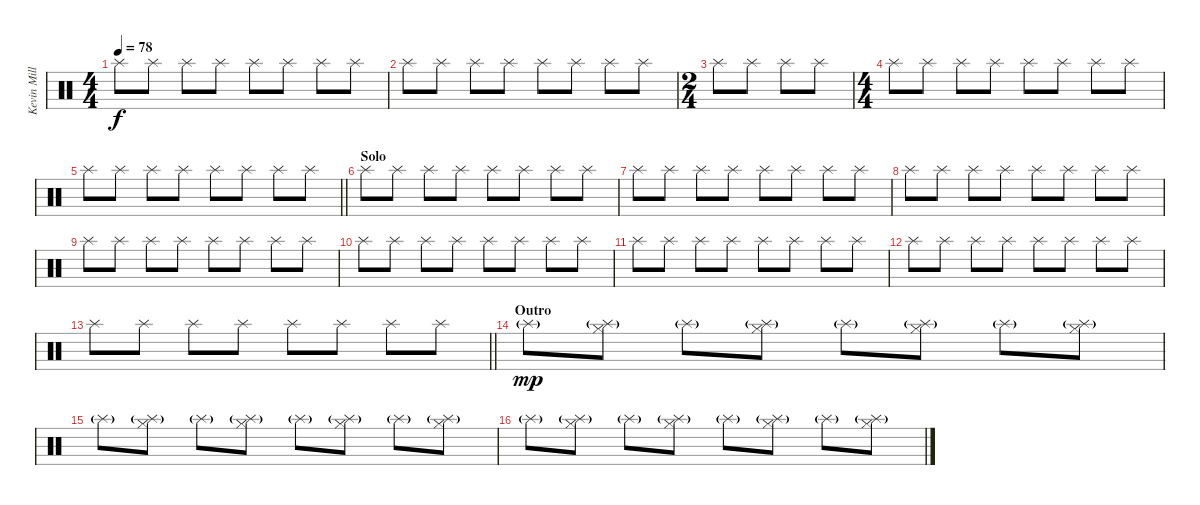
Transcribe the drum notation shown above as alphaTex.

\track ("Kevin Miller (Drums)" "Kevin Mill") {instrument percussion}
\staff {score}
\articulation defaults
\ts (4 4)
\tempo 78
\clef neutral
\ks c "Splash (hit)".8{dy f} "Splash (hit)".8 "Splash (hit)".8 "Splash (hit)".8 "Splash (hit)".8 "Splash (hit)".8 "Splash (hit)".8 "Splash (hit)".8
|
"Splash (hit)".8 "Splash (hit)".8 "Splash (hit)".8 "Splash (hit)".8 "Splash (hit)".8 "Splash (hit)".8 "Splash (hit)".8 "Splash (hit)".8 |
\ts (2 4)
"Splash (hit)".8 "Splash (hit)".8 "Splash (hit)".8 "Splash (hit)".8 |
\ts (4 4)
"Splash (hit)".8 "Splash (hit)".8 "Splash (hit)".8 "Splash (hit)".8 "Splash (hit)".8 "Splash (hit)".8 "Splash (hit)".8 "Splash (hit)".8 |
\barLineRight lightlight "Splash (hit)".8 "Splash (hit)".8 "Splash (hit)".8 "Splash (hit)".8 "Splash (hit)".8 "Splash (hit)".8 "Splash (hit)".8 "Splash (hit)".8
|
\section ("" "Solo")
"Splash (hit)".8 "Splash (hit)".8 "Splash (hit)".8 "Splash (hit)".8 "Splash (hit)".8 "Splash (hit)".8 "Splash (hit)".8 "Splash (hit)".8 |
"Splash (hit)".8 "Splash (hit)".8 "Splash (hit)".8 "Splash (hit)".8 "Splash (hit)".8 "Splash (hit)".8 "Splash (hit)".8 "Splash (hit)".8 |
"Splash (hit)".8 "Splash (hit)".8 "Splash (hit)".8 "Splash (hit)".8 "Splash (hit)".8 "Splash (hit)".8 "Splash (hit)".8 "Splash (hit)".8 |
"Splash (hit)".8 "Splash (hit)".8 "Splash (hit)".8 "Splash (hit)".8 "Splash (hit)".8 "Splash (hit)".8 "Splash (hit)".8 "Splash (hit)".8 |
"Splash (hit)".8 "Splash (hit)".8 "Splash (hit)".8 "Splash (hit)".8 "Splash (hit)".8 "Splash (hit)".8 "Splash (hit)".8 "Splash (hit)".8 |
"Splash (hit)".8 "Splash (hit)".8 "Splash (hit)".8 "Splash (hit)".8 "Splash (hit)".8 "Splash (hit)".8 "Splash (hit)".8 "Splash (hit)".8 |
"Splash (hit)".8 "Splash (hit)".8 "Splash (hit)".8 "Splash (hit)".8 "Splash (hit)".8 "Splash (hit)".8 "Splash (hit)".8 "Splash (hit)".8 |
\barLineRight lightlight "Splash (hit)".8 "Splash (hit)".8 "Splash (hit)".8 "Splash (hit)".8 "Splash (hit)".8 "Splash (hit)".8 "Splash (hit)".8 "Splash (hit)".8
|
\section ("" "Outro")
"Splash (hit)"{g}.8{dy mp} ("Hi-Hat (closed)" "Splash (hit)"{g}).8 "Splash (hit)"{g}.8 ("Hi-Hat (closed)" "Splash (hit)"{g}).8 "Splash (hit)"{g}.8 ("Hi-Hat (closed)" "Splash (hit)"{g}).8 "Splash (hit)"{g}.8 ("Hi-Hat (closed)" "Splash (hit)"{g}).8 |
"Splash (hit)"{g}.8 ("Hi-Hat (closed)" "Splash (hit)"{g}).8 "Splash (hit)"{g}.8 ("Hi-Hat (closed)" "Splash (hit)"{g}).8 "Splash (hit)"{g}.8 ("Hi-Hat (closed)" "Splash (hit)"{g}).8 "Splash (hit)"{g}.8 ("Hi-Hat (closed)" "Splash (hit)"{g}).8 |
"Splash (hit)"{g}.8 ("Hi-Hat (closed)" "Splash (hit)"{g}).8 "Splash (hit)"{g}.8 ("Hi-Hat (closed)" "Splash (hit)"{g}).8 "Splash (hit)"{g}.8 ("Hi-Hat (closed)" "Splash (hit)"{g}).8 "Splash (hit)"{g}.8 ("Hi-Hat (closed)" "Splash (hit)"{g}).8
